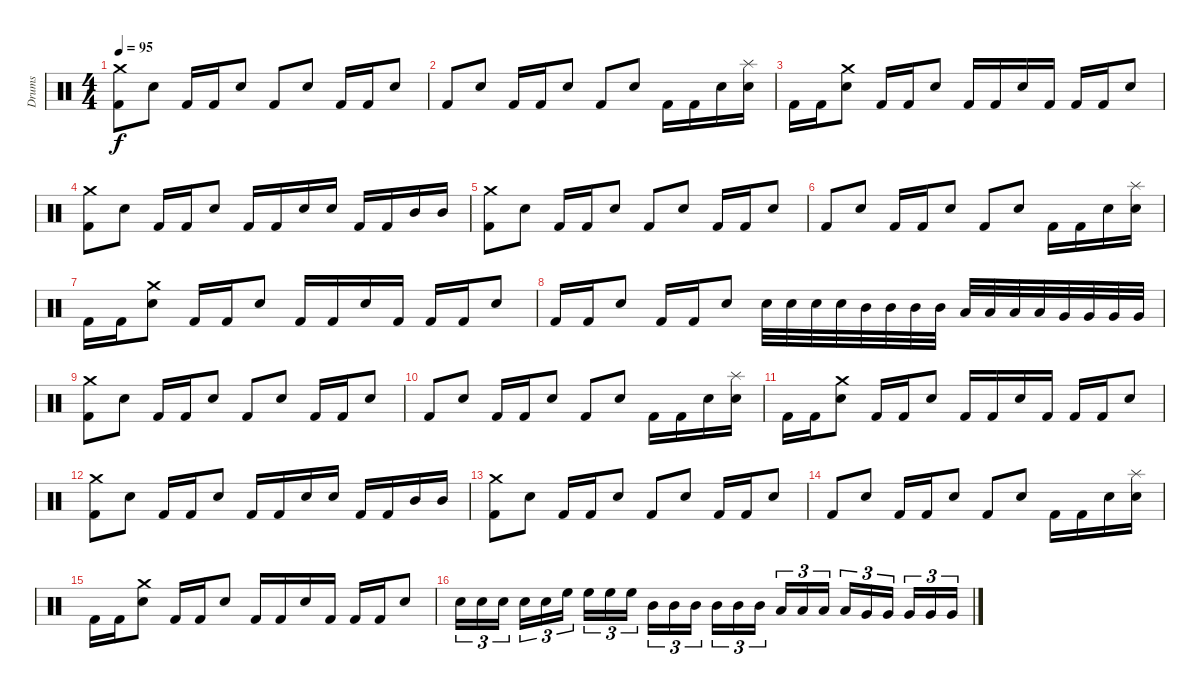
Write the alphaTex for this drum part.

\track ("Drums" "Drums") {instrument percussion}
\staff {score}
\articulation defaults
\ts (4 4)
\tempo 95
\clef neutral
\ks c
("Crash medium (hit)" "Kick (hit) 2").8{dy f} "Electric Snare (hit)".8 "Kick (hit) 2".16 "Kick (hit) 2".16 "Electric Snare (hit)".8 "Kick (hit) 2".8 "Electric Snare (hit)".8 "Kick (hit) 2".16 "Kick (hit) 2".16 "Electric Snare (hit)".8 |
"Kick (hit) 2".8 "Electric Snare (hit)".8 "Kick (hit) 2".16 "Kick (hit) 2".16 "Electric Snare (hit)".8 "Kick (hit) 2".8 "Electric Snare (hit)".8 "Kick (hit) 2".16 "Kick (hit) 2".16 "Electric Snare (hit)".16 ("Splash (hit)" "Electric Snare (hit)").16 |
"Kick (hit) 2".16 "Kick (hit) 2".16 ("Crash medium (hit)" "Electric Snare (hit)").8 "Kick (hit) 2".16 "Kick (hit) 2".16 "Electric Snare (hit)".8 "Kick (hit) 2".16 "Kick (hit) 2".16 "Electric Snare (hit)".16 "Kick (hit) 2".16 "Kick (hit) 2".16 "Kick (hit) 2".16 "Electric Snare (hit)".8 |
("Crash medium (hit)" "Kick (hit) 2").8 "Electric Snare (hit)".8 "Kick (hit) 2".16 "Kick (hit) 2".16 "Electric Snare (hit)".8 "Kick (hit) 2".16 "Kick (hit) 2".16 "Electric Snare (hit)".16 "Electric Snare (hit)".16 "Kick (hit) 2".16 "Kick (hit) 2".16 "Mid Tom (hit)".16 "Mid Tom (hit)".16 |
("Crash medium (hit)" "Kick (hit) 2").8 "Electric Snare (hit)".8 "Kick (hit) 2".16 "Kick (hit) 2".16 "Electric Snare (hit)".8 "Kick (hit) 2".8 "Electric Snare (hit)".8 "Kick (hit) 2".16 "Kick (hit) 2".16 "Electric Snare (hit)".8 |
"Kick (hit) 2".8 "Electric Snare (hit)".8 "Kick (hit) 2".16 "Kick (hit) 2".16 "Electric Snare (hit)".8 "Kick (hit) 2".8 "Electric Snare (hit)".8 "Kick (hit) 2".16 "Kick (hit) 2".16 "Electric Snare (hit)".16 ("Splash (hit)" "Electric Snare (hit)").16 |
"Kick (hit) 2".16 "Kick (hit) 2".16 ("Crash medium (hit)" "Electric Snare (hit)").8 "Kick (hit) 2".16 "Kick (hit) 2".16 "Electric Snare (hit)".8 "Kick (hit) 2".16 "Kick (hit) 2".16 "Electric Snare (hit)".16 "Kick (hit) 2".16 "Kick (hit) 2".16 "Kick (hit) 2".16 "Electric Snare (hit)".8 |
"Kick (hit) 2".16 "Kick (hit) 2".16 "Electric Snare (hit)".8 "Kick (hit) 2".16 "Kick (hit) 2".16 "Electric Snare (hit)".8 "Electric Snare (hit)".32 "Electric Snare (hit)".32 "Electric Snare (hit)".32 "Electric Snare (hit)".32 "Mid Tom (hit)".32 "Mid Tom (hit)".32 "Mid Tom (hit)".32 "Mid Tom (hit)".32 "Low Tom (hit)".32 "Low Tom (hit)".32 "Low Tom (hit)".32 "Low Tom (hit)".32 "Very Low Tom (hit)".32 "Very Low Tom (hit)".32 "Very Low Tom (hit)".32 "Very Low Tom (hit)".32 |
("Crash medium (hit)" "Kick (hit) 2").8 "Electric Snare (hit)".8 "Kick (hit) 2".16 "Kick (hit) 2".16 "Electric Snare (hit)".8 "Kick (hit) 2".8 "Electric Snare (hit)".8 "Kick (hit) 2".16 "Kick (hit) 2".16 "Electric Snare (hit)".8 |
"Kick (hit) 2".8 "Electric Snare (hit)".8 "Kick (hit) 2".16 "Kick (hit) 2".16 "Electric Snare (hit)".8 "Kick (hit) 2".8 "Electric Snare (hit)".8 "Kick (hit) 2".16 "Kick (hit) 2".16 "Electric Snare (hit)".16 ("Splash (hit)" "Electric Snare (hit)").16 |
"Kick (hit) 2".16 "Kick (hit) 2".16 ("Crash medium (hit)" "Electric Snare (hit)").8 "Kick (hit) 2".16 "Kick (hit) 2".16 "Electric Snare (hit)".8 "Kick (hit) 2".16 "Kick (hit) 2".16 "Electric Snare (hit)".16 "Kick (hit) 2".16 "Kick (hit) 2".16 "Kick (hit) 2".16 "Electric Snare (hit)".8 |
("Crash medium (hit)" "Kick (hit) 2").8 "Electric Snare (hit)".8 "Kick (hit) 2".16 "Kick (hit) 2".16 "Electric Snare (hit)".8 "Kick (hit) 2".16 "Kick (hit) 2".16 "Electric Snare (hit)".16 "Electric Snare (hit)".16 "Kick (hit) 2".16 "Kick (hit) 2".16 "Mid Tom (hit)".16 "Mid Tom (hit)".16 |
("Crash medium (hit)" "Kick (hit) 2").8 "Electric Snare (hit)".8 "Kick (hit) 2".16 "Kick (hit) 2".16 "Electric Snare (hit)".8 "Kick (hit) 2".8 "Electric Snare (hit)".8 "Kick (hit) 2".16 "Kick (hit) 2".16 "Electric Snare (hit)".8 |
"Kick (hit) 2".8 "Electric Snare (hit)".8 "Kick (hit) 2".16 "Kick (hit) 2".16 "Electric Snare (hit)".8 "Kick (hit) 2".8 "Electric Snare (hit)".8 "Kick (hit) 2".16 "Kick (hit) 2".16 "Electric Snare (hit)".16 ("Splash (hit)" "Electric Snare (hit)").16 |
"Kick (hit) 2".16 "Kick (hit) 2".16 ("Crash medium (hit)" "Electric Snare (hit)").8 "Kick (hit) 2".16 "Kick (hit) 2".16 "Electric Snare (hit)".8 "Kick (hit) 2".16 "Kick (hit) 2".16 "Electric Snare (hit)".16 "Kick (hit) 2".16 "Kick (hit) 2".16 "Kick (hit) 2".16 "Electric Snare (hit)".8 |
"Electric Snare (hit)".16{tu (3 2)} "Electric Snare (hit)".16{tu (3 2)} "Electric Snare (hit)".16{tu (3 2)} "Electric Snare (hit)".16{tu (3 2)} "Electric Snare (hit)".16{tu (3 2)} "High Floor Tom (hit)".16{tu (3 2)} "High Floor Tom (hit)".16{tu (3 2)} "High Floor Tom (hit)".16{tu (3 2)} "High Floor Tom (hit)".16{tu (3 2)} "Mid Tom (hit)".16{tu (3 2)} "Mid Tom (hit)".16{tu (3 2)} "Mid Tom (hit)".16{tu (3 2)} "Mid Tom (hit)".16{tu (3 2)} "Mid Tom (hit)".16{tu (3 2)} "Mid Tom (hit)".16{tu (3 2)} "Low Tom (hit)".16{tu (3 2)} "Low Tom (hit)".16{tu (3 2)} "Low Tom (hit)".16{tu (3 2)} "Low Tom (hit)".16{tu (3 2)} "Very Low Tom (hit)".16{tu (3 2)} "Very Low Tom (hit)".16{tu (3 2)} "Very Low Tom (hit)".16{tu (3 2)} "Very Low Tom (hit)".16{tu (3 2)} "Very Low Tom (hit)".16{tu (3 2)}
